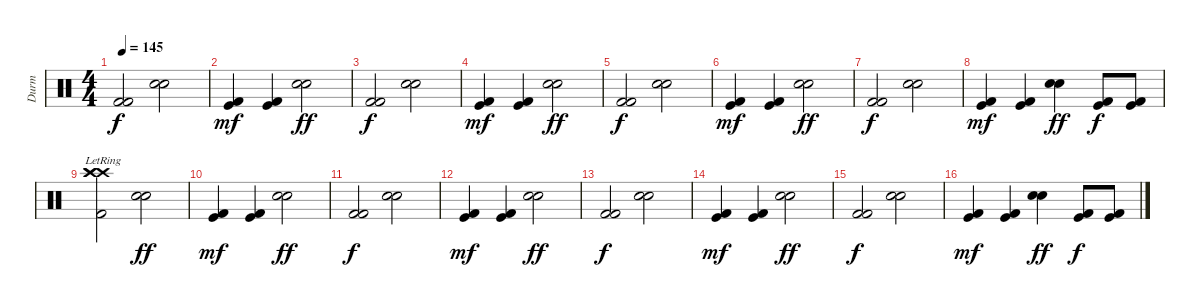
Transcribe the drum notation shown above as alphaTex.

\track ("Durm" "Durm") {instrument percussion}
\staff {score}
\articulation defaults
\ts (4 4)
\tempo 145
\clef neutral
\ks c
("Kick (hit) 2" "Kick (hit) 2").2{dy f} ("Snare (hit) 2" "Snare (hit) 2").2 |
("Kick (hit)" "Kick (hit) 2").4{dy mf} ("Kick (hit)" "Kick (hit) 2").4 ("Snare (hit) 2" "Snare (hit) 2").2{dy ff} |
("Kick (hit) 2" "Kick (hit) 2").2{dy f} ("Snare (hit) 2" "Snare (hit) 2").2 |
("Kick (hit)" "Kick (hit) 2").4{dy mf} ("Kick (hit)" "Kick (hit) 2").4 ("Snare (hit) 2" "Snare (hit) 2").2{dy ff} |
("Kick (hit) 2" "Kick (hit) 2").2{dy f} ("Snare (hit) 2" "Snare (hit) 2").2 |
("Kick (hit)" "Kick (hit) 2").4{dy mf} ("Kick (hit)" "Kick (hit) 2").4 ("Snare (hit) 2" "Snare (hit) 2").2{dy ff} |
("Kick (hit) 2" "Kick (hit) 2").2{dy f} ("Snare (hit) 2" "Snare (hit) 2").2 |
("Kick (hit)" "Kick (hit) 2").4{dy mf} ("Kick (hit)" "Kick (hit) 2").4 ("Snare (hit) 2" "Snare (hit) 2").4{dy ff} ("Kick (hit)" "Kick (hit) 2").8{dy f} ("Kick (hit)" "Kick (hit) 2").8 |
("Crash high (hit)" "Kick (hit) 2" "Crash high (hit)"{lr} "Crash high (hit)"{lr}).2 ("Snare (hit) 2" "Snare (hit) 2").2{dy ff} |
("Kick (hit)" "Kick (hit) 2").4{dy mf} ("Kick (hit)" "Kick (hit) 2").4 ("Snare (hit) 2" "Snare (hit) 2").2{dy ff} |
("Kick (hit) 2" "Kick (hit) 2").2{dy f} ("Snare (hit) 2" "Snare (hit) 2").2 |
("Kick (hit)" "Kick (hit) 2").4{dy mf} ("Kick (hit)" "Kick (hit) 2").4 ("Snare (hit) 2" "Snare (hit) 2").2{dy ff} |
("Kick (hit) 2" "Kick (hit) 2").2{dy f} ("Snare (hit) 2" "Snare (hit) 2").2 |
("Kick (hit)" "Kick (hit) 2").4{dy mf} ("Kick (hit)" "Kick (hit) 2").4 ("Snare (hit) 2" "Snare (hit) 2").2{dy ff} |
("Kick (hit) 2" "Kick (hit) 2").2{dy f} ("Snare (hit) 2" "Snare (hit) 2").2 |
("Kick (hit)" "Kick (hit) 2").4{dy mf} ("Kick (hit)" "Kick (hit) 2").4 ("Snare (hit) 2" "Snare (hit) 2").4{dy ff} ("Kick (hit)" "Kick (hit) 2").8{dy f} ("Kick (hit)" "Kick (hit) 2").8
